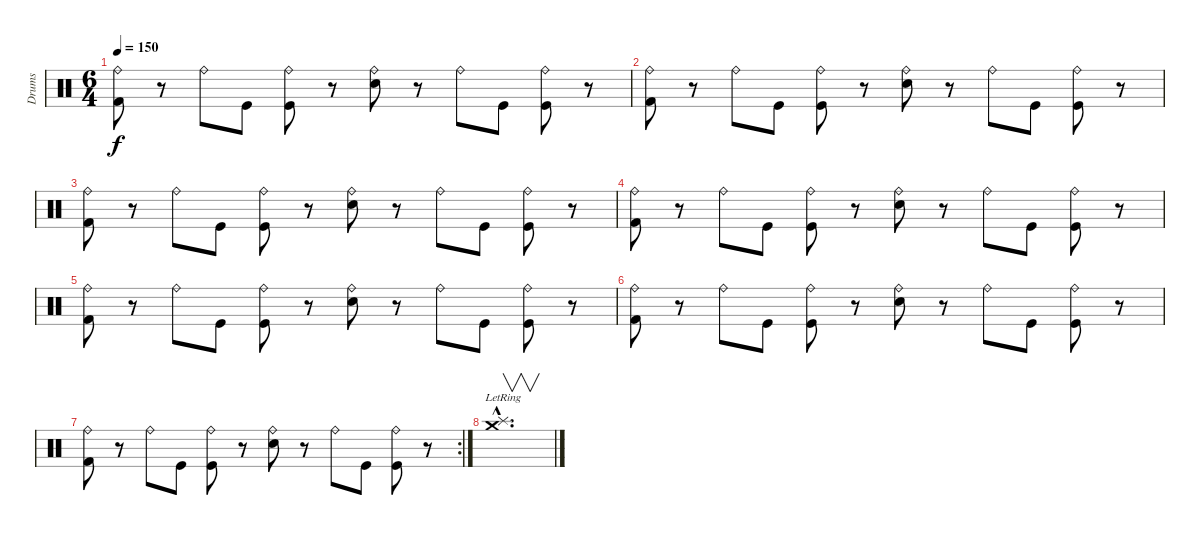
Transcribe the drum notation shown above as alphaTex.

\track ("Drums" "Drums") {instrument percussion}
\staff {score}
\articulation defaults
\ts (6 4)
\tempo 150
\clef neutral
\ks c
("Kick (hit) 2" "Ride (bell)").8{dy f} r.8 "Ride (bell)".8 "Kick (hit)".8 ("Kick (hit)" "Ride (bell)").8 r.8 ("Snare (hit) 2" "Ride (bell)").8 r.8 "Ride (bell)".8 "Kick (hit)".8 ("Kick (hit)" "Ride (bell)").8 r.8 |
("Kick (hit) 2" "Ride (bell)").8 r.8 "Ride (bell)".8 "Kick (hit)".8 ("Kick (hit)" "Ride (bell)").8 r.8 ("Snare (hit) 2" "Ride (bell)").8 r.8 "Ride (bell)".8 "Kick (hit)".8 ("Kick (hit)" "Ride (bell)").8 r.8 |
("Kick (hit) 2" "Ride (bell)").8 r.8 "Ride (bell)".8 "Kick (hit)".8 ("Kick (hit)" "Ride (bell)").8 r.8 ("Snare (hit) 2" "Ride (bell)").8 r.8 "Ride (bell)".8 "Kick (hit)".8 ("Kick (hit)" "Ride (bell)").8 r.8 |
("Kick (hit) 2" "Ride (bell)").8 r.8 "Ride (bell)".8 "Kick (hit)".8 ("Kick (hit)" "Ride (bell)").8 r.8 ("Snare (hit) 2" "Ride (bell)").8 r.8 "Ride (bell)".8 "Kick (hit)".8 ("Kick (hit)" "Ride (bell)").8 r.8 |
("Kick (hit) 2" "Ride (bell)").8 r.8 "Ride (bell)".8 "Kick (hit)".8 ("Kick (hit)" "Ride (bell)").8 r.8 ("Snare (hit) 2" "Ride (bell)").8 r.8 "Ride (bell)".8 "Kick (hit)".8 ("Kick (hit)" "Ride (bell)").8 r.8 |
("Kick (hit) 2" "Ride (bell)").8 r.8 "Ride (bell)".8 "Kick (hit)".8 ("Kick (hit)" "Ride (bell)").8 r.8 ("Snare (hit) 2" "Ride (bell)").8 r.8 "Ride (bell)".8 "Kick (hit)".8 ("Kick (hit)" "Ride (bell)").8 r.8 |
\rc 2
("Kick (hit) 2" "Ride (bell)").8 r.8 "Ride (bell)".8 "Kick (hit)".8 ("Kick (hit)" "Ride (bell)").8 r.8 ("Snare (hit) 2" "Ride (bell)").8 r.8 "Ride (bell)".8 "Kick (hit)".8 ("Kick (hit)" "Ride (bell)").8 r.8 |
("Crash medium (hit)"{hac lr} "Splash (hit)"{hac}).1{v d}
